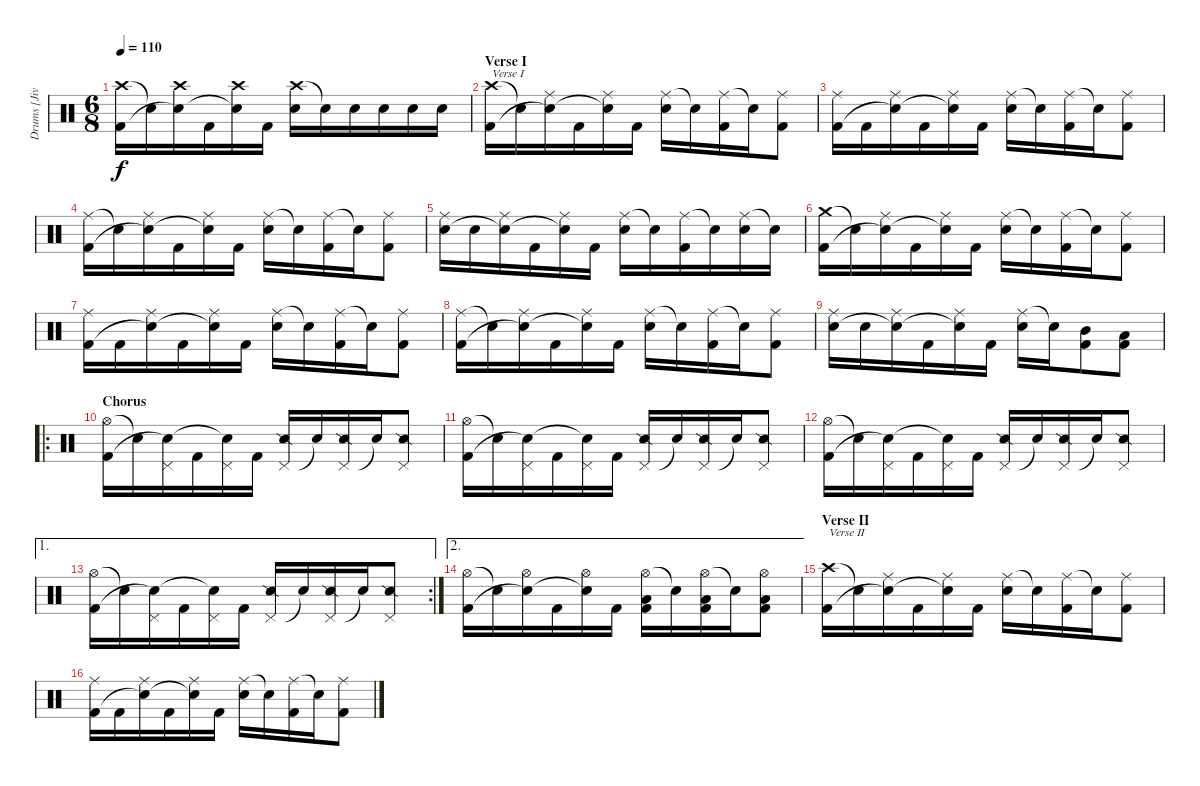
\track ("Drums [Jivarp]" "Drums [Jiv") {instrument percussion}
\staff {score}
\articulation defaults
\ts (6 8)
\tempo 110
\clef neutral
\ks c
("Crash high (hit)" "Kick (hit) 2").16{dy f} "Snare (hit)"{t}.16 ("Crash high (hit)" "Snare (hit)"{t}).16 "Kick (hit) 2".16 ("Crash high (hit)" "Snare (hit)"{t}).16 "Kick (hit) 2".16 ("Crash high (hit)" "Electric Snare (hit)").16 "Snare (hit)"{t}.16 "Electric Snare (hit)".16 "Electric Snare (hit)".16 "Electric Snare (hit)".16 "Electric Snare (hit)".16 |
\section ("" "Verse I")
("Crash high (hit)" "Kick (hit) 2").16{txt "Verse I"} "Snare (hit)"{t}.16 ("Ride (middle)" "Snare (hit)"{t}).16 "Kick (hit) 2".16 ("Ride (middle)" "Snare (hit)"{t}).16 "Kick (hit) 2".16 ("Ride (middle)" "Electric Snare (hit)").16 "Snare (hit)"{t}.16 ("Ride (middle)" "Kick (hit) 2").16 "Snare (hit)"{t}.16 ("Ride (middle)" "Kick (hit) 2").8 |
("Ride (middle)" "Kick (hit) 2").16 "Kick (hit) 2".16 ("Ride (middle)" "Snare (hit)"{t}).16 "Kick (hit) 2".16 ("Ride (middle)" "Snare (hit)"{t}).16 "Kick (hit) 2".16 ("Ride (middle)" "Electric Snare (hit)").16 "Snare (hit)"{t}.16 ("Ride (middle)" "Kick (hit) 2").16 "Snare (hit)"{t}.16 ("Ride (middle)" "Kick (hit) 2").8 |
("Ride (middle)" "Kick (hit) 2").16 "Snare (hit)"{t}.16 ("Ride (middle)" "Snare (hit)"{t}).16 "Kick (hit) 2".16 ("Ride (middle)" "Snare (hit)"{t}).16 "Kick (hit) 2".16 ("Ride (middle)" "Electric Snare (hit)").16 "Snare (hit)"{t}.16 ("Ride (middle)" "Kick (hit) 2").16 "Snare (hit)"{t}.16 ("Ride (middle)" "Kick (hit) 2").8 |
("Ride (middle)" "Electric Snare (hit)").16 "Electric Snare (hit)".16 ("Ride (middle)" "Snare (hit)"{t}).16 "Kick (hit) 2".16 ("Ride (middle)" "Snare (hit)"{t}).16 "Kick (hit) 2".16 ("Ride (middle)" "Electric Snare (hit)").16 "Snare (hit)"{t}.16 ("Ride (middle)" "Kick (hit) 2").16 "Snare (hit)"{t}.16 ("Ride (middle)" "Electric Snare (hit)").16 "Snare (hit)"{t}.16 |
("Crash medium (hit)" "Kick (hit) 2").16 "Snare (hit)"{t}.16 ("Ride (middle)" "Snare (hit)"{t}).16 "Kick (hit) 2".16 ("Ride (middle)" "Snare (hit)"{t}).16 "Kick (hit) 2".16 ("Ride (middle)" "Electric Snare (hit)").16 "Snare (hit)"{t}.16 ("Ride (middle)" "Kick (hit) 2").16 "Snare (hit)"{t}.16 ("Ride (middle)" "Kick (hit) 2").8 |
("Ride (middle)" "Kick (hit) 2").16 "Kick (hit) 2".16 ("Ride (middle)" "Snare (hit)"{t}).16 "Kick (hit) 2".16 ("Ride (middle)" "Snare (hit)"{t}).16 "Kick (hit) 2".16 ("Ride (middle)" "Electric Snare (hit)").16 "Snare (hit)"{t}.16 ("Ride (middle)" "Kick (hit) 2").16 "Snare (hit)"{t}.16 ("Ride (middle)" "Kick (hit) 2").8 |
("Ride (middle)" "Kick (hit) 2").16 "Snare (hit)"{t}.16 ("Ride (middle)" "Snare (hit)"{t}).16 "Kick (hit) 2".16 ("Ride (middle)" "Snare (hit)"{t}).16 "Kick (hit) 2".16 ("Ride (middle)" "Electric Snare (hit)").16 "Snare (hit)"{t}.16 ("Ride (middle)" "Kick (hit) 2").16 "Snare (hit)"{t}.16 ("Ride (middle)" "Kick (hit) 2").8 |
("Ride (middle)" "Electric Snare (hit)").16 "Electric Snare (hit)".16 ("Ride (middle)" "Snare (hit)"{t}).16 "Kick (hit) 2".16 ("Ride (middle)" "Snare (hit)"{t}).16 "Kick (hit) 2".16 ("Ride (middle)" "Electric Snare (hit)").16 "Snare (hit)"{t}.16 ("Mid Tom (hit)" "Kick (hit) 2").8 ("Low Tom (hit)" "Kick (hit) 2").8 |
\ro
\section ("" "Chorus ")
("Hi-Hat (open)" "Kick (hit) 2").16 "Snare (hit)"{t}.16 ("Pedal Hi-Hat (hit)" "Snare (hit)"{t}).16 "Kick (hit) 2".16 ("Pedal Hi-Hat (hit)" "Snare (hit)"{t}).16 "Kick (hit) 2".16 ("Pedal Hi-Hat (hit)" "Snare (side stick) 2").16 "Snare (hit)"{t}.16 ("Pedal Hi-Hat (hit)" "Snare (side stick) 2").16 "Snare (hit)"{t}.16 ("Pedal Hi-Hat (hit)" "Snare (side stick) 2").8 |
("Hi-Hat (open)" "Kick (hit) 2").16 "Snare (hit)"{t}.16 ("Pedal Hi-Hat (hit)" "Snare (hit)"{t}).16 "Kick (hit) 2".16 ("Pedal Hi-Hat (hit)" "Snare (hit)"{t}).16 "Kick (hit) 2".16 ("Pedal Hi-Hat (hit)" "Snare (side stick) 2").16 "Snare (hit)"{t}.16 ("Pedal Hi-Hat (hit)" "Snare (side stick) 2").16 "Snare (hit)"{t}.16 ("Pedal Hi-Hat (hit)" "Snare (side stick) 2").8 |
("Hi-Hat (open)" "Kick (hit) 2").16 "Snare (hit)"{t}.16 ("Pedal Hi-Hat (hit)" "Snare (hit)"{t}).16 "Kick (hit) 2".16 ("Pedal Hi-Hat (hit)" "Snare (hit)"{t}).16 "Kick (hit) 2".16 ("Pedal Hi-Hat (hit)" "Snare (side stick) 2").16 "Snare (hit)"{t}.16 ("Pedal Hi-Hat (hit)" "Snare (side stick) 2").16 "Snare (hit)"{t}.16 ("Pedal Hi-Hat (hit)" "Snare (side stick) 2").8 |
\ae 1
\rc 2
("Hi-Hat (open)" "Kick (hit) 2").16 "Snare (hit)"{t}.16 ("Pedal Hi-Hat (hit)" "Snare (hit)"{t}).16 "Kick (hit) 2".16 ("Pedal Hi-Hat (hit)" "Snare (hit)"{t}).16 "Kick (hit) 2".16 ("Pedal Hi-Hat (hit)" "Snare (side stick) 2").16 "Snare (hit)"{t}.16 ("Pedal Hi-Hat (hit)" "Snare (side stick) 2").16 "Snare (hit)"{t}.16 ("Pedal Hi-Hat (hit)" "Snare (side stick) 2").8 |
\ae 2
("Hi-Hat (open)" "Kick (hit) 2").16 "Snare (hit)"{t}.16 ("Hi-Hat (open)" "Snare (hit)"{t}).16 "Kick (hit) 2".16 ("Hi-Hat (open)" "Snare (hit)"{t}).16 "Kick (hit) 2".16 ("Hi-Hat (open)" "Low Tom (hit)" "Kick (hit) 2").16 "Snare (hit)"{t}.16 ("Hi-Hat (open)" "Low Tom (hit)" "Kick (hit) 2").16 "Snare (hit)"{t}.16 ("Hi-Hat (open)" "Low Tom (hit)" "Kick (hit) 2").8 |
\section ("" "Verse II")
("Crash high (hit)" "Kick (hit) 2").16{txt "Verse II"} "Snare (hit)"{t}.16 ("Ride (middle)" "Snare (hit)"{t}).16 "Kick (hit) 2".16 ("Ride (middle)" "Snare (hit)"{t}).16 "Kick (hit) 2".16 ("Ride (middle)" "Electric Snare (hit)").16 "Snare (hit)"{t}.16 ("Ride (middle)" "Kick (hit) 2").16 "Snare (hit)"{t}.16 ("Ride (middle)" "Kick (hit) 2").8 |
("Ride (middle)" "Kick (hit) 2").16 "Kick (hit) 2".16 ("Ride (middle)" "Snare (hit)"{t}).16 "Kick (hit) 2".16 ("Ride (middle)" "Snare (hit)"{t}).16 "Kick (hit) 2".16 ("Ride (middle)" "Electric Snare (hit)").16 "Snare (hit)"{t}.16 ("Ride (middle)" "Kick (hit) 2").16 "Snare (hit)"{t}.16 ("Ride (middle)" "Kick (hit) 2").8
